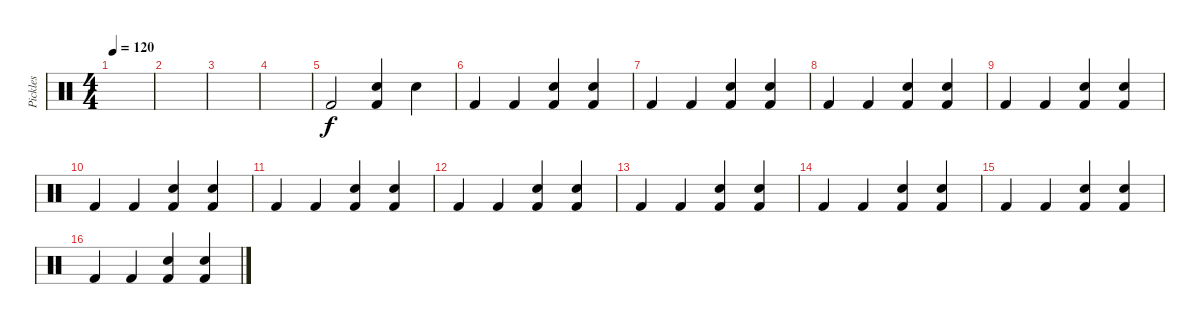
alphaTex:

\track ("Pickles" "Pickles") {instrument percussion}
\staff {score}
\articulation defaults
\ts (4 4)
\tempo 120
\clef neutral
\ks c
|
|
|
|
"Kick (hit) 2".2 ("Snare (hit) 2" "Kick (hit) 2").4 "Electric Snare (hit)".4 |
"Kick (hit) 2".4 "Kick (hit) 2".4 ("Snare (hit) 2" "Kick (hit) 2").4 ("Electric Snare (hit)" "Kick (hit) 2").4 |
"Kick (hit) 2".4 "Kick (hit) 2".4 ("Snare (hit) 2" "Kick (hit) 2").4 ("Electric Snare (hit)" "Kick (hit) 2").4 |
"Kick (hit) 2".4 "Kick (hit) 2".4 ("Snare (hit) 2" "Kick (hit) 2").4 ("Electric Snare (hit)" "Kick (hit) 2").4 |
"Kick (hit) 2".4 "Kick (hit) 2".4 ("Snare (hit) 2" "Kick (hit) 2").4 ("Electric Snare (hit)" "Kick (hit) 2").4 |
"Kick (hit) 2".4 "Kick (hit) 2".4 ("Snare (hit) 2" "Kick (hit) 2").4 ("Electric Snare (hit)" "Kick (hit) 2").4 |
"Kick (hit) 2".4 "Kick (hit) 2".4 ("Snare (hit) 2" "Kick (hit) 2").4 ("Electric Snare (hit)" "Kick (hit) 2").4 |
"Kick (hit) 2".4 "Kick (hit) 2".4 ("Snare (hit) 2" "Kick (hit) 2").4 ("Electric Snare (hit)" "Kick (hit) 2").4 |
"Kick (hit) 2".4 "Kick (hit) 2".4 ("Snare (hit) 2" "Kick (hit) 2").4 ("Electric Snare (hit)" "Kick (hit) 2").4 |
"Kick (hit) 2".4 "Kick (hit) 2".4 ("Snare (hit) 2" "Kick (hit) 2").4 ("Electric Snare (hit)" "Kick (hit) 2").4 |
"Kick (hit) 2".4 "Kick (hit) 2".4 ("Snare (hit) 2" "Kick (hit) 2").4 ("Electric Snare (hit)" "Kick (hit) 2").4 |
"Kick (hit) 2".4 "Kick (hit) 2".4 ("Snare (hit) 2" "Kick (hit) 2").4 ("Electric Snare (hit)" "Kick (hit) 2").4
